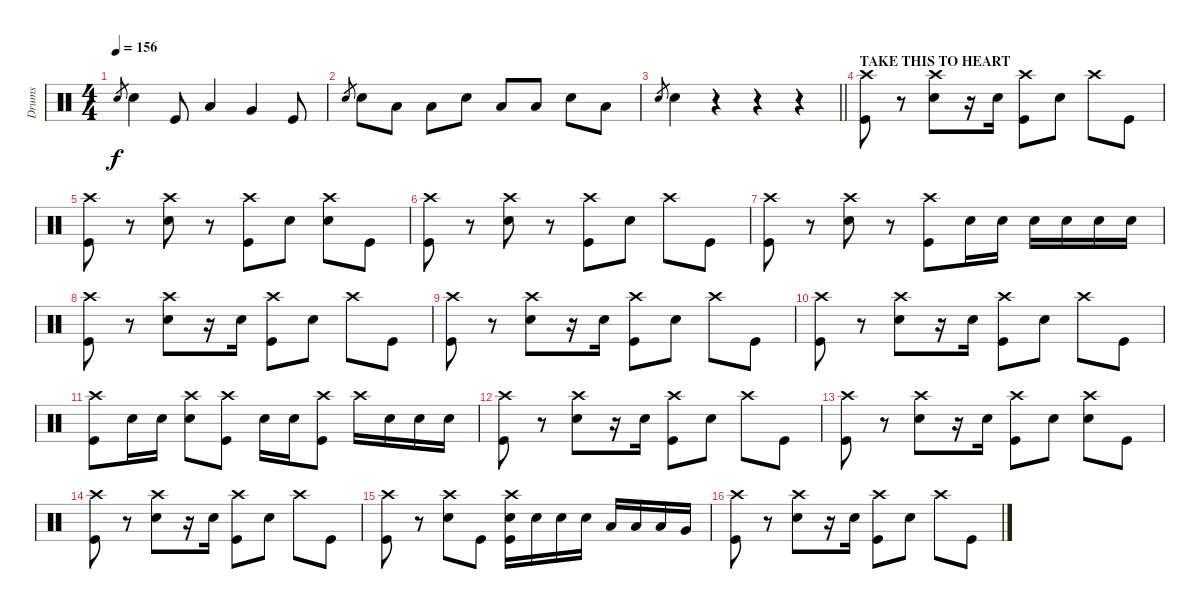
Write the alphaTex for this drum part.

\track ("Drums" "Drums") {instrument percussion}
\staff {score}
\articulation defaults
\ts (4 4)
\tempo 156
\clef neutral
\ks c "Electric Snare (hit)".8{gr dy f} "Electric Snare (hit)".4 "Kick (hit)".8 "Low Tom (hit)".4 "Very Low Tom (hit)".4 "Kick (hit)".8
|
"Electric Snare (hit)".8{gr} "Electric Snare (hit)".8 "Low Floor Tom (hit)".8 "Low Floor Tom (hit)".8 "Electric Snare (hit)".8 "Low Floor Tom (hit)".8 "Low Floor Tom (hit)".8 "Electric Snare (hit)".8 "Low Floor Tom (hit)".8 |
\barLineRight lightlight "Electric Snare (hit)".8{gr} "Electric Snare (hit)".4
r.4 r.4 r.4 |
\section ("" "TAKE THIS TO HEART")
("Crash high (hit)" "Kick (hit)").8 r.8 ("Crash high (hit)" "Electric Snare (hit)").8 r.16 "Electric Snare (hit)".16 ("Crash high (hit)" "Kick (hit)").8 "Electric Snare (hit)".8 "Crash high (hit)".8 "Kick (hit)".8 |
("Crash high (hit)" "Kick (hit)").8 r.8 ("Crash high (hit)" "Electric Snare (hit)").8 r.8 ("Crash high (hit)" "Kick (hit)").8 "Electric Snare (hit)".8 ("Crash high (hit)" "Electric Snare (hit)").8 "Kick (hit)".8 |
("Crash high (hit)" "Kick (hit)").8 r.8 ("Crash high (hit)" "Electric Snare (hit)").8 r.8 ("Crash high (hit)" "Kick (hit)").8 "Electric Snare (hit)".8 "Crash high (hit)".8 "Kick (hit)".8 |
("Crash high (hit)" "Kick (hit)").8 r.8 ("Crash high (hit)" "Electric Snare (hit)").8 r.8 ("Crash high (hit)" "Kick (hit)").8 "Electric Snare (hit)".16 "Electric Snare (hit)".16 "Electric Snare (hit)".16 "Electric Snare (hit)".16 "Electric Snare (hit)".16 "Electric Snare (hit)".16 |
("Crash high (hit)" "Kick (hit)").8 r.8 ("Crash high (hit)" "Electric Snare (hit)").8 r.16 "Electric Snare (hit)".16 ("Crash high (hit)" "Kick (hit)").8 "Electric Snare (hit)".8 "Crash high (hit)".8 "Kick (hit)".8 |
("Crash high (hit)" "Kick (hit)").8 r.8 ("Crash high (hit)" "Electric Snare (hit)").8 r.16 "Electric Snare (hit)".16 ("Crash high (hit)" "Kick (hit)").8 "Electric Snare (hit)".8 "Crash high (hit)".8 "Kick (hit)".8 |
("Crash high (hit)" "Kick (hit)").8 r.8 ("Crash high (hit)" "Electric Snare (hit)").8 r.16 "Electric Snare (hit)".16 ("Crash high (hit)" "Kick (hit)").8 "Electric Snare (hit)".8 "Crash high (hit)".8 "Kick (hit)".8 |
("Crash high (hit)" "Kick (hit)").8 "Electric Snare (hit)".16 "Electric Snare (hit)".16 ("Crash high (hit)" "Electric Snare (hit)").8 ("Crash high (hit)" "Kick (hit)").8 "Electric Snare (hit)".16 "Electric Snare (hit)".16 ("Crash high (hit)" "Kick (hit)").8 "Crash high (hit)".16 "Electric Snare (hit)".16 "Electric Snare (hit)".16 "Electric Snare (hit)".16 |
("Crash high (hit)" "Kick (hit)").8 r.8 ("Crash high (hit)" "Electric Snare (hit)").8 r.16 "Electric Snare (hit)".16 ("Crash high (hit)" "Kick (hit)").8 "Electric Snare (hit)".8 "Crash high (hit)".8 "Kick (hit)".8 |
("Crash high (hit)" "Kick (hit)").8 r.8 ("Crash high (hit)" "Electric Snare (hit)").8 r.16 "Electric Snare (hit)".16 ("Crash high (hit)" "Kick (hit)").8 "Electric Snare (hit)".8 ("Crash high (hit)" "Electric Snare (hit)").8 "Kick (hit)".8 |
("Crash high (hit)" "Kick (hit)").8 r.8 ("Crash high (hit)" "Electric Snare (hit)").8 r.16 "Electric Snare (hit)".16 ("Crash high (hit)" "Kick (hit)").8 "Electric Snare (hit)".8 "Crash high (hit)".8 "Kick (hit)".8 |
("Crash high (hit)" "Kick (hit)").8 r.8 ("Crash high (hit)" "Electric Snare (hit)").8 "Kick (hit)".8 ("Crash high (hit)" "Electric Snare (hit)" "Kick (hit)").16 "Electric Snare (hit)".16 "Electric Snare (hit)".16 "Electric Snare (hit)".16 "Low Tom (hit)".16 "Low Tom (hit)".16 "Low Tom (hit)".16 "Very Low Tom (hit)".16 |
("Crash high (hit)" "Kick (hit)").8 r.8 ("Crash high (hit)" "Electric Snare (hit)").8 r.16 "Electric Snare (hit)".16 ("Crash high (hit)" "Kick (hit)").8 "Electric Snare (hit)".8 "Crash high (hit)".8 "Kick (hit)".8
